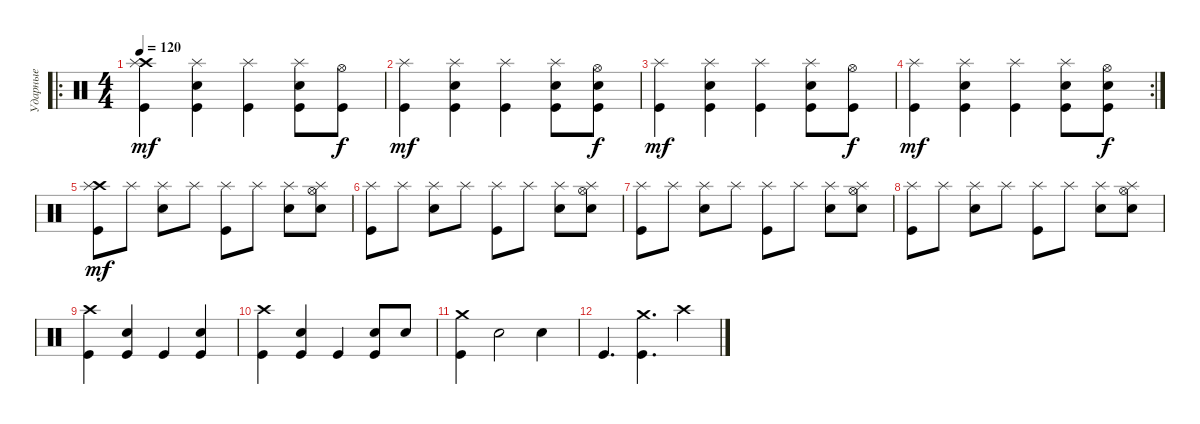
\track ("Ударные" "Ударные") {instrument percussion}
\staff
\articulation defaults
\ro
\ts (4 4)
\tempo 120
\clef neutral
\ks c
("Crash high (hit)" "Splash (hit)" "Kick (hit)").4{dy mf} ("Splash (hit)" "Snare (hit) 2" "Kick (hit)").4 ("Splash (hit)" "Kick (hit)").4 ("Splash (hit)" "Snare (hit) 2" "Kick (hit)").8 ("Hi-Hat (open)" "Kick (hit)").8{dy f} |
("Splash (hit)" "Kick (hit)").4{dy mf} ("Splash (hit)" "Snare (hit) 2" "Kick (hit)").4 ("Splash (hit)" "Kick (hit)").4 ("Splash (hit)" "Snare (hit) 2" "Kick (hit)").8 ("Hi-Hat (open)" "Snare (hit) 2" "Kick (hit)").8{dy f} |
("Splash (hit)" "Kick (hit)").4{dy mf} ("Splash (hit)" "Snare (hit) 2" "Kick (hit)").4 ("Splash (hit)" "Kick (hit)").4 ("Splash (hit)" "Snare (hit) 2" "Kick (hit)").8 ("Hi-Hat (open)" "Kick (hit)").8{dy f} |
\rc 2
("Splash (hit)" "Kick (hit)").4{dy mf} ("Splash (hit)" "Snare (hit) 2" "Kick (hit)").4 ("Splash (hit)" "Kick (hit)").4 ("Splash (hit)" "Snare (hit) 2" "Kick (hit)").8 ("Hi-Hat (open)" "Snare (hit) 2" "Kick (hit)").8{dy f} |
("Crash high (hit)" "Splash (hit)" "Kick (hit)").8{dy mf} "Splash (hit)".8 ("Splash (hit)" "Snare (hit) 2").8 "Splash (hit)".8 ("Splash (hit)" "Kick (hit)").8 "Splash (hit)".8 ("Splash (hit)" "Snare (hit) 2").8 ("Splash (hit)" "Hi-Hat (open)" "Snare (hit) 2").8 |
("Splash (hit)" "Kick (hit)").8 "Splash (hit)".8 ("Splash (hit)" "Snare (hit) 2").8 "Splash (hit)".8 ("Splash (hit)" "Kick (hit)").8 "Splash (hit)".8 ("Splash (hit)" "Snare (hit) 2").8 ("Splash (hit)" "Hi-Hat (open)" "Snare (hit) 2").8 |
("Splash (hit)" "Kick (hit)").8 "Splash (hit)".8 ("Splash (hit)" "Snare (hit) 2").8 "Splash (hit)".8 ("Splash (hit)" "Kick (hit)").8 "Splash (hit)".8 ("Splash (hit)" "Snare (hit) 2").8 ("Splash (hit)" "Hi-Hat (open)" "Snare (hit) 2").8 |
("Splash (hit)" "Kick (hit)").8 "Splash (hit)".8 ("Splash (hit)" "Snare (hit) 2").8 "Splash (hit)".8 ("Splash (hit)" "Kick (hit)").8 "Splash (hit)".8 ("Splash (hit)" "Snare (hit) 2").8 ("Splash (hit)" "Hi-Hat (open)" "Snare (hit) 2").8 |
("Crash high (hit)" "Kick (hit)").4 ("Snare (hit) 2" "Kick (hit)").4 "Kick (hit)".4 ("Snare (hit) 2" "Kick (hit)").4 |
("Crash high (hit)" "Kick (hit)").4 ("Snare (hit) 2" "Kick (hit)").4 "Kick (hit)".4 ("Snare (hit) 2" "Kick (hit)").8 "Snare (hit) 2".8 |
("Crash medium (hit)" "Kick (hit)").4 "Snare (hit) 2".2 "Snare (hit) 2".4 |
"Kick (hit)".4{d} ("Crash medium (hit)" "Kick (hit)").4{d} "Crash high (hit)".4
